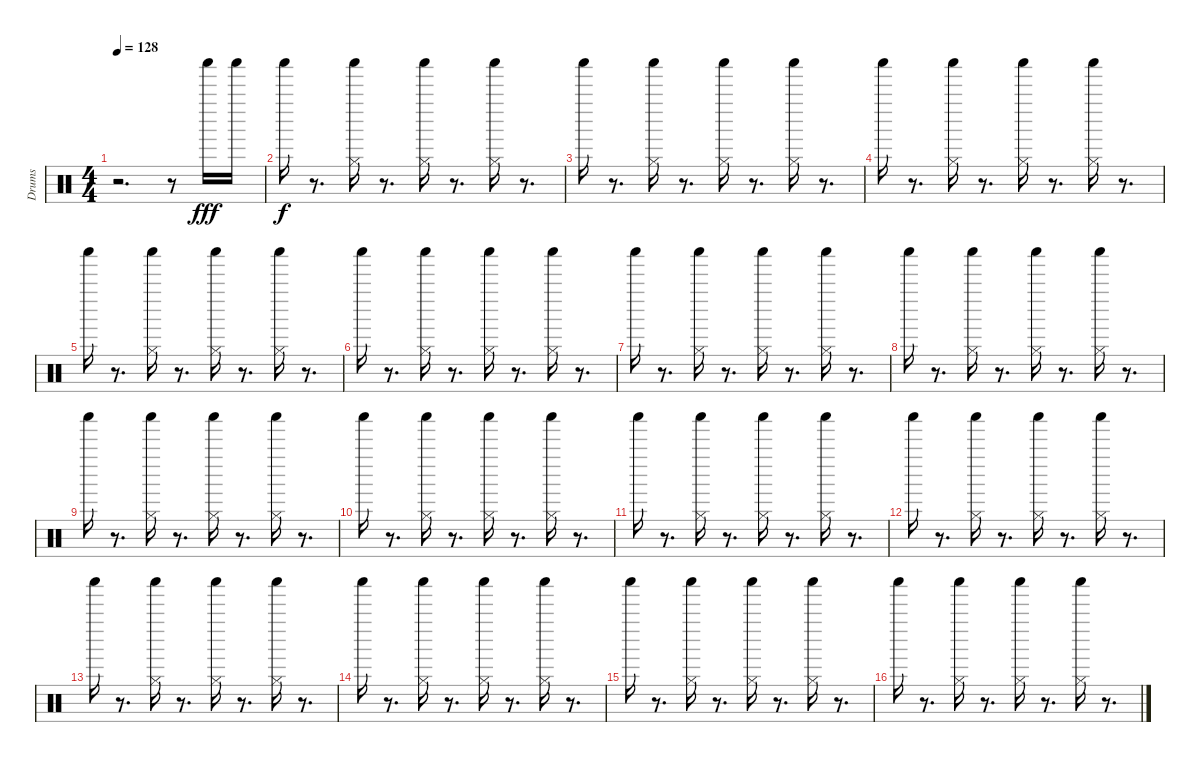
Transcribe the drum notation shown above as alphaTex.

\track ("Drums  " "Drums  ") {instrument percussion}
\staff {score}
\articulation defaults
\ts (4 4)
\tempo 128
\clef neutral
\ks c
r.2{d dy fff} r.8 "Shaker (hit)".16 "Shaker (hit)".16 |
"Shaker (hit)".16{dy f} r.8{d} ("Shaker (hit)" "Hi-Hat (closed)").16 r.8{d} ("Shaker (hit)" "Hi-Hat (closed)").16 r.8{d} ("Shaker (hit)" "Hi-Hat (closed)").16 r.8{d} |
"Shaker (hit)".16 r.8{d} ("Shaker (hit)" "Hi-Hat (closed)").16 r.8{d} ("Shaker (hit)" "Hi-Hat (closed)").16 r.8{d} ("Shaker (hit)" "Hi-Hat (closed)").16 r.8{d} |
"Shaker (hit)".16 r.8{d} ("Shaker (hit)" "Hi-Hat (closed)").16 r.8{d} ("Shaker (hit)" "Hi-Hat (closed)").16 r.8{d} ("Shaker (hit)" "Hi-Hat (closed)").16 r.8{d} |
"Shaker (hit)".16 r.8{d} ("Shaker (hit)" "Hi-Hat (closed)").16 r.8{d} ("Shaker (hit)" "Hi-Hat (closed)").16 r.8{d} ("Shaker (hit)" "Hi-Hat (closed)").16 r.8{d} |
"Shaker (hit)".16 r.8{d} ("Shaker (hit)" "Hi-Hat (closed)").16 r.8{d} ("Shaker (hit)" "Hi-Hat (closed)").16 r.8{d} ("Shaker (hit)" "Hi-Hat (closed)").16 r.8{d} |
"Shaker (hit)".16 r.8{d} ("Shaker (hit)" "Hi-Hat (closed)").16 r.8{d} ("Shaker (hit)" "Hi-Hat (closed)").16 r.8{d} ("Shaker (hit)" "Hi-Hat (closed)").16 r.8{d} |
"Shaker (hit)".16 r.8{d} ("Shaker (hit)" "Hi-Hat (closed)").16 r.8{d} ("Shaker (hit)" "Hi-Hat (closed)").16 r.8{d} ("Shaker (hit)" "Hi-Hat (closed)").16 r.8{d} |
"Shaker (hit)".16 r.8{d} ("Shaker (hit)" "Hi-Hat (closed)").16 r.8{d} ("Shaker (hit)" "Hi-Hat (closed)").16 r.8{d} ("Shaker (hit)" "Hi-Hat (closed)").16 r.8{d} |
"Shaker (hit)".16 r.8{d} ("Shaker (hit)" "Hi-Hat (closed)").16 r.8{d} ("Shaker (hit)" "Hi-Hat (closed)").16 r.8{d} ("Shaker (hit)" "Hi-Hat (closed)").16 r.8{d} |
"Shaker (hit)".16 r.8{d} ("Shaker (hit)" "Hi-Hat (closed)").16 r.8{d} ("Shaker (hit)" "Hi-Hat (closed)").16 r.8{d} ("Shaker (hit)" "Hi-Hat (closed)").16 r.8{d} |
"Shaker (hit)".16 r.8{d} ("Shaker (hit)" "Hi-Hat (closed)").16 r.8{d} ("Shaker (hit)" "Hi-Hat (closed)").16 r.8{d} ("Shaker (hit)" "Hi-Hat (closed)").16 r.8{d} |
"Shaker (hit)".16 r.8{d} ("Shaker (hit)" "Hi-Hat (closed)").16 r.8{d} ("Shaker (hit)" "Hi-Hat (closed)").16 r.8{d} ("Shaker (hit)" "Hi-Hat (closed)").16 r.8{d} |
"Shaker (hit)".16 r.8{d} ("Shaker (hit)" "Hi-Hat (closed)").16 r.8{d} ("Shaker (hit)" "Hi-Hat (closed)").16 r.8{d} ("Shaker (hit)" "Hi-Hat (closed)").16 r.8{d} |
"Shaker (hit)".16 r.8{d} ("Shaker (hit)" "Hi-Hat (closed)").16 r.8{d} ("Shaker (hit)" "Hi-Hat (closed)").16 r.8{d} ("Shaker (hit)" "Hi-Hat (closed)").16 r.8{d} |
"Shaker (hit)".16 r.8{d} ("Shaker (hit)" "Hi-Hat (closed)").16 r.8{d} ("Shaker (hit)" "Hi-Hat (closed)").16 r.8{d} ("Shaker (hit)" "Hi-Hat (closed)").16 r.8{d}
